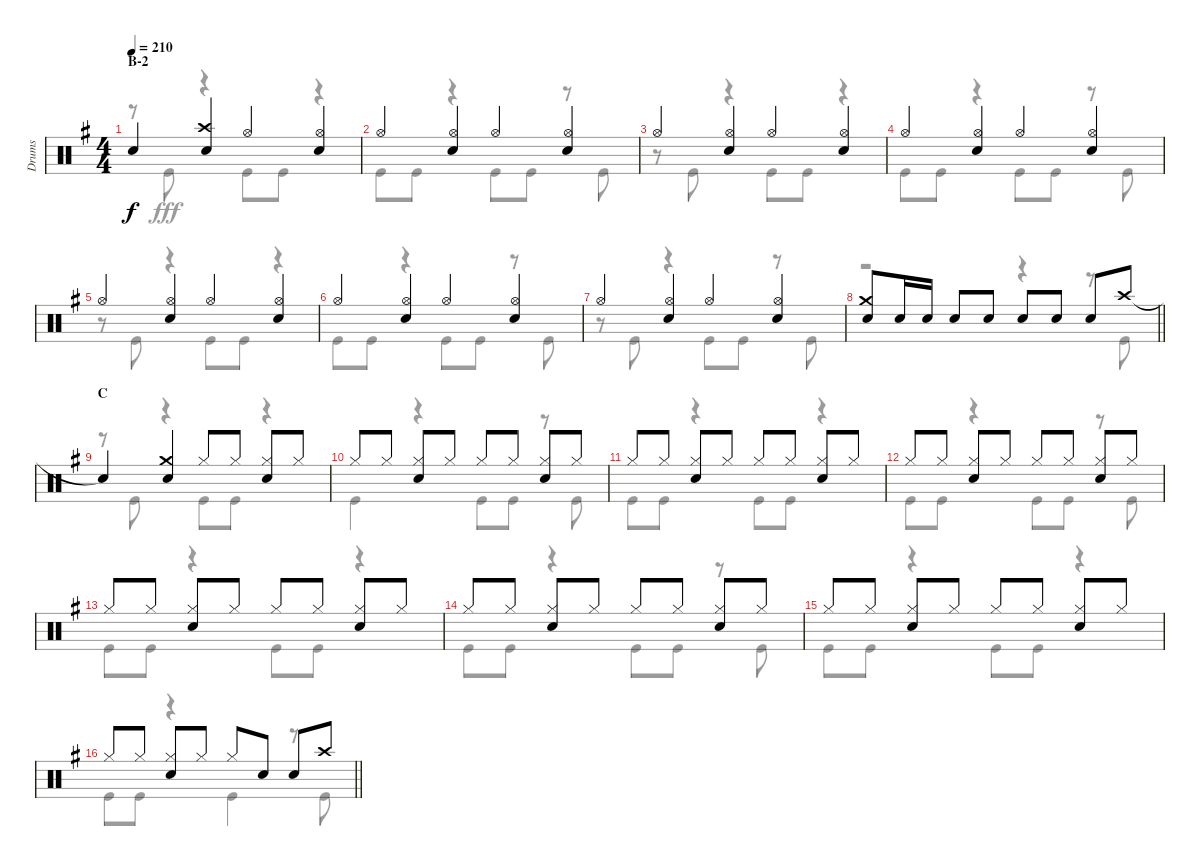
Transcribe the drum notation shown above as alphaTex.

\track ("Drums" "Drums") {instrument percussion}
\staff {score}
\articulation defaults
\voice
\ts (4 4)
\section ("" "B-2")
\tempo 210
\clef neutral
\ks g "Snare (hit)"{t}.4{dy f}
("Crash high (hit)" "Snare (hit) 2").4 "Hi-Hat (open)".4 ("Hi-Hat (open)" "Snare (hit) 2").4 |
"Hi-Hat (open)".4 ("Hi-Hat (open)" "Snare (hit) 2").4 "Hi-Hat (open)".4 ("Hi-Hat (open)" "Snare (hit) 2").4 |
"Hi-Hat (open)".4 ("Hi-Hat (open)" "Snare (hit) 2").4 "Hi-Hat (open)".4 ("Hi-Hat (open)" "Snare (hit) 2").4 |
"Hi-Hat (open)".4 ("Hi-Hat (open)" "Snare (hit) 2").4 "Hi-Hat (open)".4 ("Hi-Hat (open)" "Snare (hit) 2").4 |
"Hi-Hat (open)".4 ("Hi-Hat (open)" "Snare (hit) 2").4 "Hi-Hat (open)".4 ("Hi-Hat (open)" "Snare (hit) 2").4 |
"Hi-Hat (open)".4 ("Hi-Hat (open)" "Snare (hit) 2").4 "Hi-Hat (open)".4 ("Hi-Hat (open)" "Snare (hit) 2").4 |
"Hi-Hat (open)".4 ("Hi-Hat (open)" "Snare (hit) 2").4 "Hi-Hat (open)".4 ("Hi-Hat (open)" "Snare (hit) 2").4 |
\barLineRight lightlight
("Crash medium (hit)" "Snare (hit) 2").8 "Snare (hit) 2".16 "Snare (hit) 2".16 "Snare (hit) 2".8 "Snare (hit) 2".8 "Snare (hit) 2".8 "Snare (hit) 2".8 "Snare (hit) 2".8 "Crash high (hit)".8 |
\section ("" "C")
"Snare (hit)"{t}.4 ("Crash medium (hit)" "Snare (hit) 2").4 "Hi-Hat (closed)".8 "Hi-Hat (closed)".8 ("Hi-Hat (closed)" "Snare (hit) 2").8 "Hi-Hat (closed)".8 |
"Hi-Hat (closed)".8 "Hi-Hat (closed)".8 ("Hi-Hat (closed)" "Snare (hit) 2").8 "Hi-Hat (closed)".8 "Hi-Hat (closed)".8 "Hi-Hat (closed)".8 ("Hi-Hat (closed)" "Snare (hit) 2").8 "Hi-Hat (closed)".8 |
"Hi-Hat (closed)".8 "Hi-Hat (closed)".8 ("Hi-Hat (closed)" "Snare (hit) 2").8 "Hi-Hat (closed)".8 "Hi-Hat (closed)".8 "Hi-Hat (closed)".8 ("Hi-Hat (closed)" "Snare (hit) 2").8 "Hi-Hat (closed)".8 |
"Hi-Hat (closed)".8 "Hi-Hat (closed)".8 ("Hi-Hat (closed)" "Snare (hit) 2").8 "Hi-Hat (closed)".8 "Hi-Hat (closed)".8 "Hi-Hat (closed)".8 ("Hi-Hat (closed)" "Snare (hit) 2").8 "Hi-Hat (closed)".8 |
"Hi-Hat (closed)".8 "Hi-Hat (closed)".8 ("Hi-Hat (closed)" "Snare (hit) 2").8 "Hi-Hat (closed)".8 "Hi-Hat (closed)".8 "Hi-Hat (closed)".8 ("Hi-Hat (closed)" "Snare (hit) 2").8 "Hi-Hat (closed)".8 |
"Hi-Hat (closed)".8 "Hi-Hat (closed)".8 ("Hi-Hat (closed)" "Snare (hit) 2").8 "Hi-Hat (closed)".8 "Hi-Hat (closed)".8 "Hi-Hat (closed)".8 ("Hi-Hat (closed)" "Snare (hit) 2").8 "Hi-Hat (closed)".8 |
"Hi-Hat (closed)".8 "Hi-Hat (closed)".8 ("Hi-Hat (closed)" "Snare (hit) 2").8 "Hi-Hat (closed)".8 "Hi-Hat (closed)".8 "Hi-Hat (closed)".8 ("Hi-Hat (closed)" "Snare (hit) 2").8 "Hi-Hat (closed)".8 |
\barLineRight lightlight "Hi-Hat (closed)".8 "Hi-Hat (closed)".8
("Hi-Hat (closed)" "Snare (hit) 2").8 "Hi-Hat (closed)".8 "Hi-Hat (closed)".8 "Snare (hit) 2".8 "Snare (hit) 2".8 "Crash high (hit)".8
\voice
\clef neutral
\ottava regular
\simile none
\ks g
r.8{dy fff} "Kick (hit)".8 r.4 "Kick (hit)".8 "Kick (hit)".8 r.4 |
"Kick (hit)".8 "Kick (hit)".8 r.4 "Kick (hit)".8 "Kick (hit)".8 r.8 "Kick (hit)".8 |
r.8 "Kick (hit)".8 r.4 "Kick (hit)".8 "Kick (hit)".8 r.4 |
"Kick (hit)".8 "Kick (hit)".8 r.4 "Kick (hit)".8 "Kick (hit)".8 r.8 "Kick (hit)".8 |
r.8 "Kick (hit)".8 r.4 "Kick (hit)".8 "Kick (hit)".8 r.4 |
"Kick (hit)".8 "Kick (hit)".8 r.4 "Kick (hit)".8 "Kick (hit)".8 r.8 "Kick (hit)".8 |
r.8 "Kick (hit)".8 r.4 "Kick (hit)".8 "Kick (hit)".8 r.8 "Kick (hit)".8 |
\barLineRight lightlight
r.2 r.4 r.8 "Kick (hit)".8 |
r.8 "Kick (hit)".8 r.4 "Kick (hit)".8 "Kick (hit)".8 r.4 |
"Kick (hit)".4 r.4 "Kick (hit)".8 "Kick (hit)".8 r.8 "Kick (hit)".8 |
"Kick (hit)".8 "Kick (hit)".8 r.4 "Kick (hit)".8 "Kick (hit)".8 r.4 |
"Kick (hit)".8 "Kick (hit)".8 r.4 "Kick (hit)".8 "Kick (hit)".8 r.8 "Kick (hit)".8 |
"Kick (hit)".8 "Kick (hit)".8 r.4 "Kick (hit)".8 "Kick (hit)".8 r.4 |
"Kick (hit)".8 "Kick (hit)".8 r.4 "Kick (hit)".8 "Kick (hit)".8 r.8 "Kick (hit)".8 |
"Kick (hit)".8 "Kick (hit)".8 r.4 "Kick (hit)".8 "Kick (hit)".8 r.4 |
\barLineRight lightlight "Kick (hit)".8 "Kick (hit)".8
r.4 "Kick (hit)".4 r.8 "Kick (hit)".8
